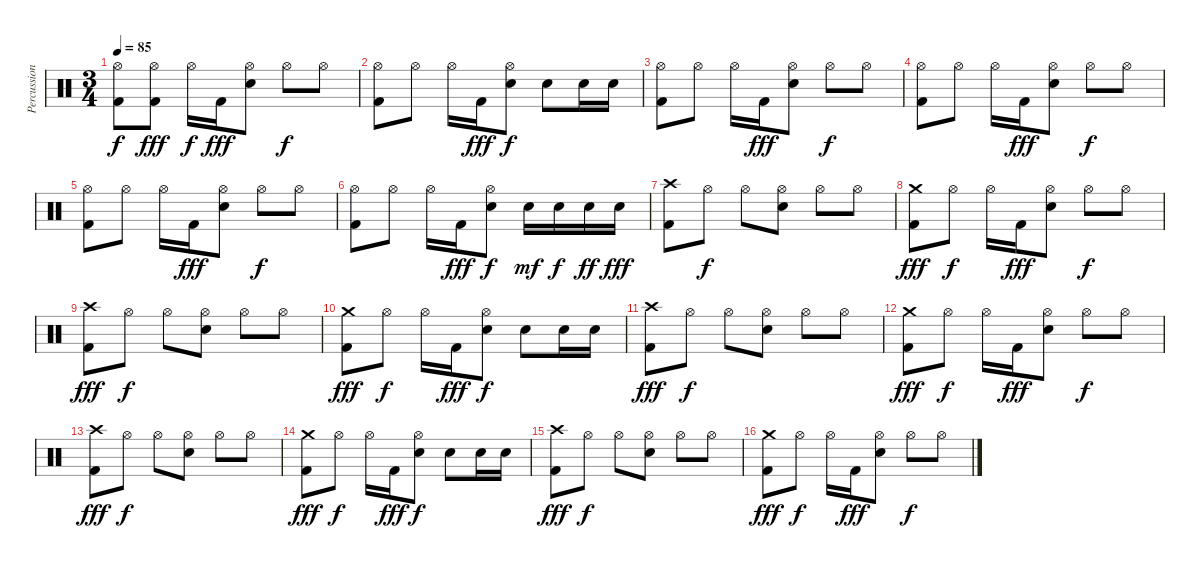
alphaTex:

\track ("Percussion" "Percussion") {instrument percussion}
\staff {score}
\articulation defaults
\ts (3 4)
\tempo 85
\clef neutral
\ks c
("Hi-Hat (open)" "Kick (hit) 2").8{dy f} ("Hi-Hat (open)" "Kick (hit) 2").8{dy fff} "Hi-Hat (open)".16{dy f} "Kick (hit) 2".16{dy fff} ("Snare (hit) 2" "Hi-Hat (open)").8 "Hi-Hat (open)".8{dy f} "Hi-Hat (open)".8 |
("Hi-Hat (open)" "Kick (hit) 2").8 "Hi-Hat (open)".8 "Hi-Hat (open)".16 "Kick (hit) 2".16{dy fff} ("Snare (hit) 2" "Hi-Hat (open)").8{dy f} "Snare (hit) 2".8 "Snare (hit) 2".16 "Snare (hit) 2".16 |
("Hi-Hat (open)" "Kick (hit) 2").8 "Hi-Hat (open)".8 "Hi-Hat (open)".16 "Kick (hit) 2".16{dy fff} ("Snare (hit) 2" "Hi-Hat (open)").8 "Hi-Hat (open)".8{dy f} "Hi-Hat (open)".8 |
("Hi-Hat (open)" "Kick (hit) 2").8 "Hi-Hat (open)".8 "Hi-Hat (open)".16 "Kick (hit) 2".16{dy fff} ("Snare (hit) 2" "Hi-Hat (open)").8 "Hi-Hat (open)".8{dy f} "Hi-Hat (open)".8 |
("Hi-Hat (open)" "Kick (hit) 2").8 "Hi-Hat (open)".8 "Hi-Hat (open)".16 "Kick (hit) 2".16{dy fff} ("Snare (hit) 2" "Hi-Hat (open)").8 "Hi-Hat (open)".8{dy f} "Hi-Hat (open)".8 |
("Hi-Hat (open)" "Kick (hit) 2").8 "Hi-Hat (open)".8 "Hi-Hat (open)".16 "Kick (hit) 2".16{dy fff} ("Snare (hit) 2" "Hi-Hat (open)").8{dy f} "Snare (hit) 2".16{dy mf} "Snare (hit) 2".16{dy f} "Snare (hit) 2".16{dy ff} "Snare (hit) 2".16{dy fff} |
("Crash high (hit)" "Kick (hit) 2").8 "Hi-Hat (open)".8{dy f} "Hi-Hat (open)".8 ("Snare (hit) 2" "Hi-Hat (open)").8 "Hi-Hat (open)".8 "Hi-Hat (open)".8 |
("Crash medium (hit)" "Kick (hit) 2").8{dy fff} "Hi-Hat (open)".8{dy f} "Hi-Hat (open)".16 "Kick (hit) 2".16{dy fff} ("Snare (hit) 2" "Hi-Hat (open)").8 "Hi-Hat (open)".8{dy f} "Hi-Hat (open)".8 |
("Crash high (hit)" "Kick (hit) 2").8{dy fff} "Hi-Hat (open)".8{dy f} "Hi-Hat (open)".8 ("Snare (hit) 2" "Hi-Hat (open)").8 "Hi-Hat (open)".8 "Hi-Hat (open)".8 |
("Crash medium (hit)" "Kick (hit) 2").8{dy fff} "Hi-Hat (open)".8{dy f} "Hi-Hat (open)".16 "Kick (hit) 2".16{dy fff} ("Snare (hit) 2" "Hi-Hat (open)").8{dy f} "Snare (hit) 2".8 "Snare (hit) 2".16 "Snare (hit) 2".16 |
("Crash high (hit)" "Kick (hit) 2").8{dy fff} "Hi-Hat (open)".8{dy f} "Hi-Hat (open)".8 ("Snare (hit) 2" "Hi-Hat (open)").8 "Hi-Hat (open)".8 "Hi-Hat (open)".8 |
("Crash medium (hit)" "Kick (hit) 2").8{dy fff} "Hi-Hat (open)".8{dy f} "Hi-Hat (open)".16 "Kick (hit) 2".16{dy fff} ("Snare (hit) 2" "Hi-Hat (open)").8 "Hi-Hat (open)".8{dy f} "Hi-Hat (open)".8 |
("Crash high (hit)" "Kick (hit) 2").8{dy fff} "Hi-Hat (open)".8{dy f} "Hi-Hat (open)".8 ("Snare (hit) 2" "Hi-Hat (open)").8 "Hi-Hat (open)".8 "Hi-Hat (open)".8 |
("Crash medium (hit)" "Kick (hit) 2").8{dy fff} "Hi-Hat (open)".8{dy f} "Hi-Hat (open)".16 "Kick (hit) 2".16{dy fff} ("Snare (hit) 2" "Hi-Hat (open)").8{dy f} "Snare (hit) 2".8 "Snare (hit) 2".16 "Snare (hit) 2".16 |
("Crash high (hit)" "Kick (hit) 2").8{dy fff} "Hi-Hat (open)".8{dy f} "Hi-Hat (open)".8 ("Snare (hit) 2" "Hi-Hat (open)").8 "Hi-Hat (open)".8 "Hi-Hat (open)".8 |
("Crash medium (hit)" "Kick (hit) 2").8{dy fff} "Hi-Hat (open)".8{dy f} "Hi-Hat (open)".16 "Kick (hit) 2".16{dy fff} ("Snare (hit) 2" "Hi-Hat (open)").8 "Hi-Hat (open)".8{dy f} "Hi-Hat (open)".8
